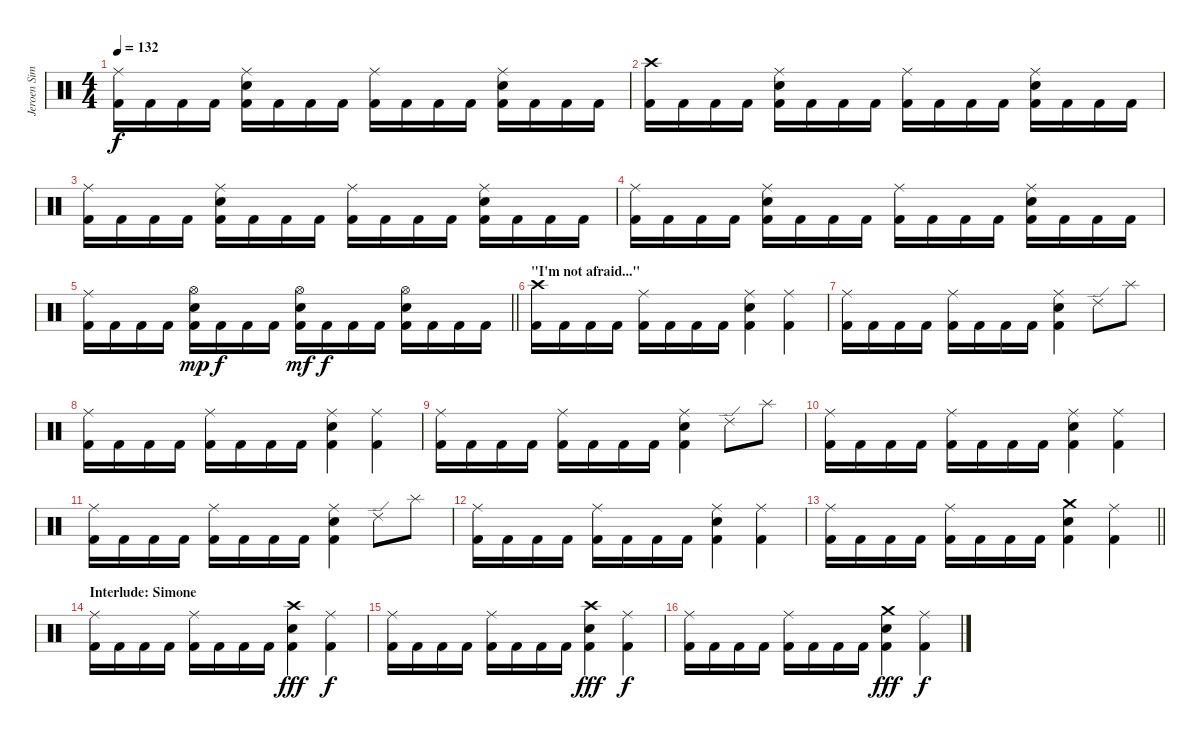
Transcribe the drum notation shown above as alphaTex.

\track ("Jeroen Simons" "Jeroen Sim") {instrument percussion}
\staff {score}
\articulation defaults
\ts (4 4)
\tempo 132
\clef neutral
\ks c
("Ride (middle)" "Kick (hit) 2").16{dy f} "Kick (hit) 2".16 "Kick (hit) 2".16 "Kick (hit) 2".16 ("Ride (middle)" "Electric Snare (hit)" "Kick (hit) 2").16 "Kick (hit) 2".16 "Kick (hit) 2".16 "Kick (hit) 2".16 ("Ride (middle)" "Kick (hit) 2").16 "Kick (hit) 2".16 "Kick (hit) 2".16 "Kick (hit) 2".16 ("Ride (middle)" "Electric Snare (hit)" "Kick (hit) 2").16 "Kick (hit) 2".16 "Kick (hit) 2".16 "Kick (hit) 2".16 |
("Crash high (hit)" "Kick (hit) 2").16 "Kick (hit) 2".16 "Kick (hit) 2".16 "Kick (hit) 2".16 ("Ride (middle)" "Electric Snare (hit)" "Kick (hit) 2").16 "Kick (hit) 2".16 "Kick (hit) 2".16 "Kick (hit) 2".16 ("Ride (middle)" "Kick (hit) 2").16 "Kick (hit) 2".16 "Kick (hit) 2".16 "Kick (hit) 2".16 ("Ride (middle)" "Electric Snare (hit)" "Kick (hit) 2").16 "Kick (hit) 2".16 "Kick (hit) 2".16 "Kick (hit) 2".16 |
("Ride (middle)" "Kick (hit) 2").16 "Kick (hit) 2".16 "Kick (hit) 2".16 "Kick (hit) 2".16 ("Ride (middle)" "Electric Snare (hit)" "Kick (hit) 2").16 "Kick (hit) 2".16 "Kick (hit) 2".16 "Kick (hit) 2".16 ("Ride (middle)" "Kick (hit) 2").16 "Kick (hit) 2".16 "Kick (hit) 2".16 "Kick (hit) 2".16 ("Ride (middle)" "Electric Snare (hit)" "Kick (hit) 2").16 "Kick (hit) 2".16 "Kick (hit) 2".16 "Kick (hit) 2".16 |
("Ride (middle)" "Kick (hit) 2").16 "Kick (hit) 2".16 "Kick (hit) 2".16 "Kick (hit) 2".16 ("Ride (middle)" "Electric Snare (hit)" "Kick (hit) 2").16 "Kick (hit) 2".16 "Kick (hit) 2".16 "Kick (hit) 2".16 ("Ride (middle)" "Kick (hit) 2").16 "Kick (hit) 2".16 "Kick (hit) 2".16 "Kick (hit) 2".16 ("Ride (middle)" "Electric Snare (hit)" "Kick (hit) 2").16 "Kick (hit) 2".16 "Kick (hit) 2".16 "Kick (hit) 2".16 |
\barLineRight lightlight
("Ride (middle)" "Kick (hit) 2").16 "Kick (hit) 2".16 "Kick (hit) 2".16 "Kick (hit) 2".16 ("Hi-Hat (open)" "Electric Snare (hit)" "Kick (hit) 2").16{dy mp} "Kick (hit) 2".16{dy f} "Kick (hit) 2".16 "Kick (hit) 2".16 ("Hi-Hat (open)" "Electric Snare (hit)" "Kick (hit) 2").16{dy mf} "Kick (hit) 2".16{dy f} "Kick (hit) 2".16 "Kick (hit) 2".16 ("Hi-Hat (open)" "Electric Snare (hit)" "Kick (hit) 2").16 "Kick (hit) 2".16 "Kick (hit) 2".16 "Kick (hit) 2".16 |
\section ("" "\"I'm not afraid...\"")
("Crash high (hit)" "Kick (hit) 2").16 "Kick (hit) 2".16 "Kick (hit) 2".16 "Kick (hit) 2".16 ("Ride (middle)" "Kick (hit) 2").16 "Kick (hit) 2".16 "Kick (hit) 2".16 "Kick (hit) 2".16 ("Ride (middle)" "Electric Snare (hit)" "Kick (hit) 2").4 ("Ride (middle)" "Kick (hit) 2").4 |
("Ride (middle)" "Kick (hit) 2").16 "Kick (hit) 2".16 "Kick (hit) 2".16 "Kick (hit) 2".16 ("Ride (middle)" "Kick (hit) 2").16 "Kick (hit) 2".16 "Kick (hit) 2".16 "Kick (hit) 2".16 ("Ride (middle)" "Electric Snare (hit)" "Kick (hit) 2").4 "Ride (edge) 2".8 "Splash (hit)".8 |
("Ride (middle)" "Kick (hit) 2").16 "Kick (hit) 2".16 "Kick (hit) 2".16 "Kick (hit) 2".16 ("Ride (middle)" "Kick (hit) 2").16 "Kick (hit) 2".16 "Kick (hit) 2".16 "Kick (hit) 2".16 ("Ride (middle)" "Electric Snare (hit)" "Kick (hit) 2").4 ("Ride (middle)" "Kick (hit) 2").4 |
("Ride (middle)" "Kick (hit) 2").16 "Kick (hit) 2".16 "Kick (hit) 2".16 "Kick (hit) 2".16 ("Ride (middle)" "Kick (hit) 2").16 "Kick (hit) 2".16 "Kick (hit) 2".16 "Kick (hit) 2".16 ("Ride (middle)" "Electric Snare (hit)" "Kick (hit) 2").4 "Ride (edge) 2".8 "Splash (hit)".8 |
("Ride (middle)" "Kick (hit) 2").16 "Kick (hit) 2".16 "Kick (hit) 2".16 "Kick (hit) 2".16 ("Ride (middle)" "Kick (hit) 2").16 "Kick (hit) 2".16 "Kick (hit) 2".16 "Kick (hit) 2".16 ("Ride (middle)" "Electric Snare (hit)" "Kick (hit) 2").4 ("Ride (middle)" "Kick (hit) 2").4 |
("Ride (middle)" "Kick (hit) 2").16 "Kick (hit) 2".16 "Kick (hit) 2".16 "Kick (hit) 2".16 ("Ride (middle)" "Kick (hit) 2").16 "Kick (hit) 2".16 "Kick (hit) 2".16 "Kick (hit) 2".16 ("Ride (middle)" "Electric Snare (hit)" "Kick (hit) 2").4 "Ride (edge) 2".8 "Splash (hit)".8 |
("Ride (middle)" "Kick (hit) 2").16 "Kick (hit) 2".16 "Kick (hit) 2".16 "Kick (hit) 2".16 ("Ride (middle)" "Kick (hit) 2").16 "Kick (hit) 2".16 "Kick (hit) 2".16 "Kick (hit) 2".16 ("Ride (middle)" "Electric Snare (hit)" "Kick (hit) 2").4 ("Ride (middle)" "Kick (hit) 2").4 |
\barLineRight lightlight
("Ride (middle)" "Kick (hit) 2").16 "Kick (hit) 2".16 "Kick (hit) 2".16 "Kick (hit) 2".16 ("Ride (middle)" "Kick (hit) 2").16 "Kick (hit) 2".16 "Kick (hit) 2".16 "Kick (hit) 2".16 ("Crash medium (hit)" "Electric Snare (hit)" "Kick (hit) 2").4 ("Ride (middle)" "Kick (hit) 2").4 |
\section ("" "Interlude: Simone")
("Ride (middle)" "Kick (hit) 2").16 "Kick (hit) 2".16 "Kick (hit) 2".16 "Kick (hit) 2".16 ("Ride (middle)" "Kick (hit) 2").16 "Kick (hit) 2".16 "Kick (hit) 2".16 "Kick (hit) 2".16 ("Crash high (hit)" "Electric Snare (hit)" "Kick (hit) 2").4{dy fff} ("Ride (middle)" "Kick (hit) 2").4{dy f} |
("Ride (middle)" "Kick (hit) 2").16 "Kick (hit) 2".16 "Kick (hit) 2".16 "Kick (hit) 2".16 ("Ride (middle)" "Kick (hit) 2").16 "Kick (hit) 2".16 "Kick (hit) 2".16 "Kick (hit) 2".16 ("Crash high (hit)" "Electric Snare (hit)" "Kick (hit) 2").4{dy fff} ("Ride (middle)" "Kick (hit) 2").4{dy f} |
("Ride (middle)" "Kick (hit) 2").16 "Kick (hit) 2".16 "Kick (hit) 2".16 "Kick (hit) 2".16 ("Ride (middle)" "Kick (hit) 2").16 "Kick (hit) 2".16 "Kick (hit) 2".16 "Kick (hit) 2".16 ("Crash medium (hit)" "Electric Snare (hit)" "Kick (hit) 2").4{dy fff} ("Ride (middle)" "Kick (hit) 2").4{dy f}
